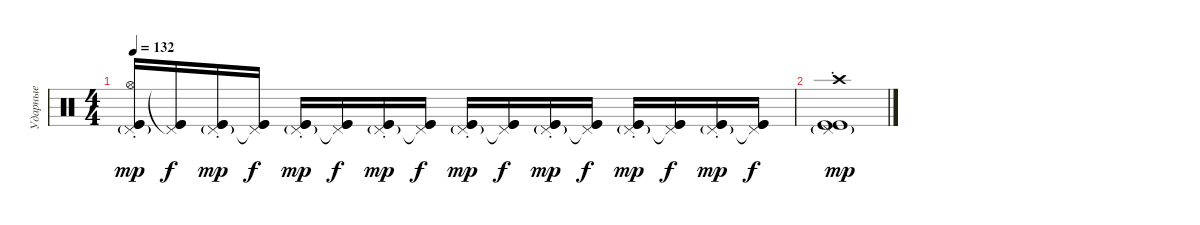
\track ("Ударные" "Ударные") {instrument percussion}
\staff {score}
\articulation defaults
\ts (4 4)
\tempo 132
\clef neutral
\ks c
("Kick (hit)" "Kick (hit)" "Hi-Hat (open)" "Pedal Hi-Hat (hit)"{g st}).16{dy mp} ("Kick (hit)" "Kick (hit)" "Pedal Hi-Hat (hit)"{t}).16{dy f} ("Kick (hit)" "Kick (hit)" "Pedal Hi-Hat (hit)"{g st}).16{dy mp} ("Kick (hit)" "Kick (hit)" "Pedal Hi-Hat (hit)"{t}).16{dy f} ("Kick (hit)" "Kick (hit)" "Pedal Hi-Hat (hit)"{g st}).16{dy mp} ("Kick (hit)" "Kick (hit)" "Pedal Hi-Hat (hit)"{t}).16{dy f} ("Kick (hit)" "Kick (hit)" "Pedal Hi-Hat (hit)"{g st}).16{dy mp} ("Kick (hit)" "Kick (hit)" "Pedal Hi-Hat (hit)"{t}).16{dy f} ("Kick (hit)" "Kick (hit)" "Pedal Hi-Hat (hit)"{g st}).16{dy mp} ("Kick (hit)" "Kick (hit)" "Pedal Hi-Hat (hit)"{t}).16{dy f} ("Kick (hit)" "Kick (hit)" "Pedal Hi-Hat (hit)"{g st}).16{dy mp} ("Kick (hit)" "Kick (hit)" "Pedal Hi-Hat (hit)"{t}).16{dy f} ("Kick (hit)" "Kick (hit)" "Pedal Hi-Hat (hit)"{g st}).16{dy mp} ("Kick (hit)" "Kick (hit)" "Pedal Hi-Hat (hit)"{t}).16{dy f} ("Kick (hit)" "Kick (hit)" "Pedal Hi-Hat (hit)"{g st}).16{dy mp} ("Kick (hit)" "Kick (hit)" "Pedal Hi-Hat (hit)"{t}).16{dy f} |
("Kick (hit)" "Kick (hit)" "Crash high (hit)" "Pedal Hi-Hat (hit)"{g st}).1{dy mp}
